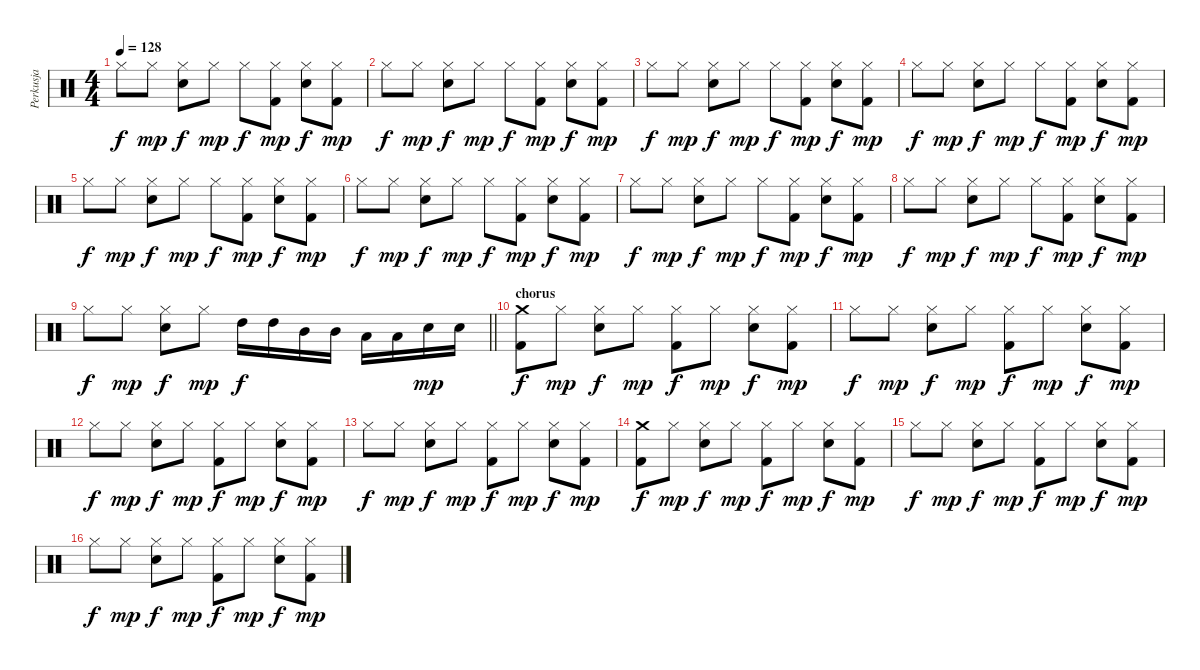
\track ("Perkusja" "Perkusja") {instrument percussion}
\staff {score}
\articulation defaults
\ts (4 4)
\tempo 128
\clef neutral
\ks c "Hi-Hat (closed)".8{dy f} "Hi-Hat (closed)".8{dy mp}
("Hi-Hat (closed)" "Electric Snare (hit)").8{dy f} "Hi-Hat (closed)".8{dy mp} "Hi-Hat (closed)".8{dy f} ("Hi-Hat (closed)" "Kick (hit) 2").8{dy mp} ("Hi-Hat (closed)" "Electric Snare (hit)").8{dy f} ("Hi-Hat (closed)" "Kick (hit) 2").8{dy mp} |
"Hi-Hat (closed)".8{dy f} "Hi-Hat (closed)".8{dy mp} ("Hi-Hat (closed)" "Electric Snare (hit)").8{dy f} "Hi-Hat (closed)".8{dy mp} "Hi-Hat (closed)".8{dy f} ("Hi-Hat (closed)" "Kick (hit) 2").8{dy mp} ("Hi-Hat (closed)" "Electric Snare (hit)").8{dy f} ("Hi-Hat (closed)" "Kick (hit) 2").8{dy mp} |
"Hi-Hat (closed)".8{dy f} "Hi-Hat (closed)".8{dy mp} ("Hi-Hat (closed)" "Electric Snare (hit)").8{dy f} "Hi-Hat (closed)".8{dy mp} "Hi-Hat (closed)".8{dy f} ("Hi-Hat (closed)" "Kick (hit) 2").8{dy mp} ("Hi-Hat (closed)" "Electric Snare (hit)").8{dy f} ("Hi-Hat (closed)" "Kick (hit) 2").8{dy mp} |
"Hi-Hat (closed)".8{dy f} "Hi-Hat (closed)".8{dy mp} ("Hi-Hat (closed)" "Electric Snare (hit)").8{dy f} "Hi-Hat (closed)".8{dy mp} "Hi-Hat (closed)".8{dy f} ("Hi-Hat (closed)" "Kick (hit) 2").8{dy mp} ("Hi-Hat (closed)" "Electric Snare (hit)").8{dy f} ("Hi-Hat (closed)" "Kick (hit) 2").8{dy mp} |
"Hi-Hat (closed)".8{dy f} "Hi-Hat (closed)".8{dy mp} ("Hi-Hat (closed)" "Electric Snare (hit)").8{dy f} "Hi-Hat (closed)".8{dy mp} "Hi-Hat (closed)".8{dy f} ("Hi-Hat (closed)" "Kick (hit) 2").8{dy mp} ("Hi-Hat (closed)" "Electric Snare (hit)").8{dy f} ("Hi-Hat (closed)" "Kick (hit) 2").8{dy mp} |
"Hi-Hat (closed)".8{dy f} "Hi-Hat (closed)".8{dy mp} ("Hi-Hat (closed)" "Electric Snare (hit)").8{dy f} "Hi-Hat (closed)".8{dy mp} "Hi-Hat (closed)".8{dy f} ("Hi-Hat (closed)" "Kick (hit) 2").8{dy mp} ("Hi-Hat (closed)" "Electric Snare (hit)").8{dy f} ("Hi-Hat (closed)" "Kick (hit) 2").8{dy mp} |
"Hi-Hat (closed)".8{dy f} "Hi-Hat (closed)".8{dy mp} ("Hi-Hat (closed)" "Electric Snare (hit)").8{dy f} "Hi-Hat (closed)".8{dy mp} "Hi-Hat (closed)".8{dy f} ("Hi-Hat (closed)" "Kick (hit) 2").8{dy mp} ("Hi-Hat (closed)" "Electric Snare (hit)").8{dy f} ("Hi-Hat (closed)" "Kick (hit) 2").8{dy mp} |
"Hi-Hat (closed)".8{dy f} "Hi-Hat (closed)".8{dy mp} ("Hi-Hat (closed)" "Electric Snare (hit)").8{dy f} "Hi-Hat (closed)".8{dy mp} "Hi-Hat (closed)".8{dy f} ("Hi-Hat (closed)" "Kick (hit) 2").8{dy mp} ("Hi-Hat (closed)" "Electric Snare (hit)").8{dy f} ("Hi-Hat (closed)" "Kick (hit) 2").8{dy mp} |
\barLineRight lightlight "Hi-Hat (closed)".8{dy f} "Hi-Hat (closed)".8{dy mp}
("Hi-Hat (closed)" "Electric Snare (hit)").8{dy f} "Hi-Hat (closed)".8{dy mp} "High Tom (hit)".16{dy f} "High Tom (hit)".16 "Mid Tom (hit)".16 "Mid Tom (hit)".16 "Low Tom (hit)".16 "Low Tom (hit)".16 "Electric Snare (hit)".16{dy mp} "Electric Snare (hit)".16 |
\section ("" "chorus")
("Crash medium (hit)" "Kick (hit) 2").8{dy f} "Hi-Hat (closed)".8{dy mp} ("Hi-Hat (closed)" "Electric Snare (hit)").8{dy f} "Hi-Hat (closed)".8{dy mp} ("Hi-Hat (closed)" "Kick (hit) 2").8{dy f} "Hi-Hat (closed)".8{dy mp} ("Hi-Hat (closed)" "Electric Snare (hit)").8{dy f} ("Hi-Hat (closed)" "Kick (hit) 2").8{dy mp} |
"Hi-Hat (closed)".8{dy f} "Hi-Hat (closed)".8{dy mp} ("Hi-Hat (closed)" "Electric Snare (hit)").8{dy f} "Hi-Hat (closed)".8{dy mp} ("Hi-Hat (closed)" "Kick (hit) 2").8{dy f} "Hi-Hat (closed)".8{dy mp} ("Hi-Hat (closed)" "Electric Snare (hit)").8{dy f} ("Hi-Hat (closed)" "Kick (hit) 2").8{dy mp} |
"Hi-Hat (closed)".8{dy f} "Hi-Hat (closed)".8{dy mp} ("Hi-Hat (closed)" "Electric Snare (hit)").8{dy f} "Hi-Hat (closed)".8{dy mp} ("Hi-Hat (closed)" "Kick (hit) 2").8{dy f} "Hi-Hat (closed)".8{dy mp} ("Hi-Hat (closed)" "Electric Snare (hit)").8{dy f} ("Hi-Hat (closed)" "Kick (hit) 2").8{dy mp} |
"Hi-Hat (closed)".8{dy f} "Hi-Hat (closed)".8{dy mp} ("Hi-Hat (closed)" "Electric Snare (hit)").8{dy f} "Hi-Hat (closed)".8{dy mp} ("Hi-Hat (closed)" "Kick (hit) 2").8{dy f} "Hi-Hat (closed)".8{dy mp} ("Hi-Hat (closed)" "Electric Snare (hit)").8{dy f} ("Hi-Hat (closed)" "Kick (hit) 2").8{dy mp} |
("Crash medium (hit)" "Kick (hit) 2").8{dy f} "Hi-Hat (closed)".8{dy mp} ("Hi-Hat (closed)" "Electric Snare (hit)").8{dy f} "Hi-Hat (closed)".8{dy mp} ("Hi-Hat (closed)" "Kick (hit) 2").8{dy f} "Hi-Hat (closed)".8{dy mp} ("Hi-Hat (closed)" "Electric Snare (hit)").8{dy f} ("Hi-Hat (closed)" "Kick (hit) 2").8{dy mp} |
"Hi-Hat (closed)".8{dy f} "Hi-Hat (closed)".8{dy mp} ("Hi-Hat (closed)" "Electric Snare (hit)").8{dy f} "Hi-Hat (closed)".8{dy mp} ("Hi-Hat (closed)" "Kick (hit) 2").8{dy f} "Hi-Hat (closed)".8{dy mp} ("Hi-Hat (closed)" "Electric Snare (hit)").8{dy f} ("Hi-Hat (closed)" "Kick (hit) 2").8{dy mp} |
"Hi-Hat (closed)".8{dy f} "Hi-Hat (closed)".8{dy mp} ("Hi-Hat (closed)" "Electric Snare (hit)").8{dy f} "Hi-Hat (closed)".8{dy mp} ("Hi-Hat (closed)" "Kick (hit) 2").8{dy f} "Hi-Hat (closed)".8{dy mp} ("Hi-Hat (closed)" "Electric Snare (hit)").8{dy f} ("Hi-Hat (closed)" "Kick (hit) 2").8{dy mp}
